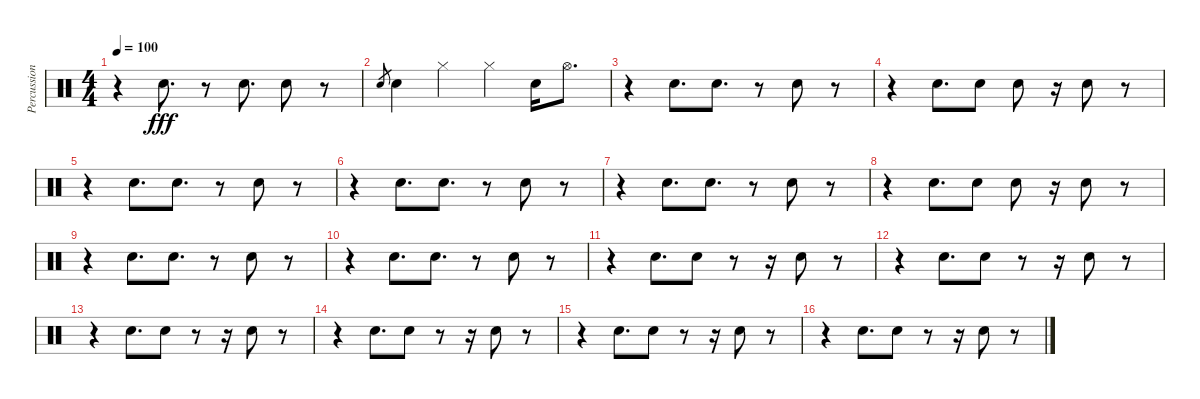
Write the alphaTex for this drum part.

\track ("Percussion" "Percussion") {instrument percussion}
\staff {score}
\articulation defaults
\ts (4 4)
\tempo 100
\clef neutral
\ks c
r.4{dy fff} "Snare (hit) 2".8{d} r.8 "Snare (hit) 2".8{d} "Snare (hit) 2".8 r.8 |
"Snare (hit) 2".8{gr} "Snare (hit) 2".4 "Hi-Hat (closed)".4 "Hi-Hat (closed)".4 "Snare (hit) 2".16 "Hi-Hat (open)".8{d} |
r.4 "Snare (hit) 2".8{d} "Snare (hit) 2".8{d} r.8 "Snare (hit) 2".8 r.8 |
r.4 "Snare (hit) 2".8{d} "Snare (hit) 2".8 "Snare (hit) 2".8 r.16 "Snare (hit) 2".8 r.8 |
r.4 "Snare (hit) 2".8{d} "Snare (hit) 2".8{d} r.8 "Snare (hit) 2".8 r.8 |
r.4 "Snare (hit) 2".8{d} "Snare (hit) 2".8{d} r.8 "Snare (hit) 2".8 r.8 |
r.4 "Snare (hit) 2".8{d} "Snare (hit) 2".8{d} r.8 "Snare (hit) 2".8 r.8 |
r.4 "Snare (hit) 2".8{d} "Snare (hit) 2".8 "Snare (hit) 2".8 r.16 "Snare (hit) 2".8 r.8 |
r.4 "Snare (hit) 2".8{d} "Snare (hit) 2".8{d} r.8 "Snare (hit) 2".8 r.8 |
r.4 "Snare (hit) 2".8{d} "Snare (hit) 2".8{d} r.8 "Snare (hit) 2".8 r.8 |
r.4 "Snare (hit) 2".8{d} "Snare (hit) 2".8 r.8 r.16 "Snare (hit) 2".8 r.8 |
r.4 "Snare (hit) 2".8{d} "Snare (hit) 2".8 r.8 r.16 "Snare (hit) 2".8 r.8 |
r.4 "Snare (hit) 2".8{d} "Snare (hit) 2".8 r.8 r.16 "Snare (hit) 2".8 r.8 |
r.4 "Snare (hit) 2".8{d} "Snare (hit) 2".8 r.8 r.16 "Snare (hit) 2".8 r.8 |
r.4 "Snare (hit) 2".8{d} "Snare (hit) 2".8 r.8 r.16 "Snare (hit) 2".8 r.8 |
r.4 "Snare (hit) 2".8{d} "Snare (hit) 2".8 r.8 r.16 "Snare (hit) 2".8 r.8
